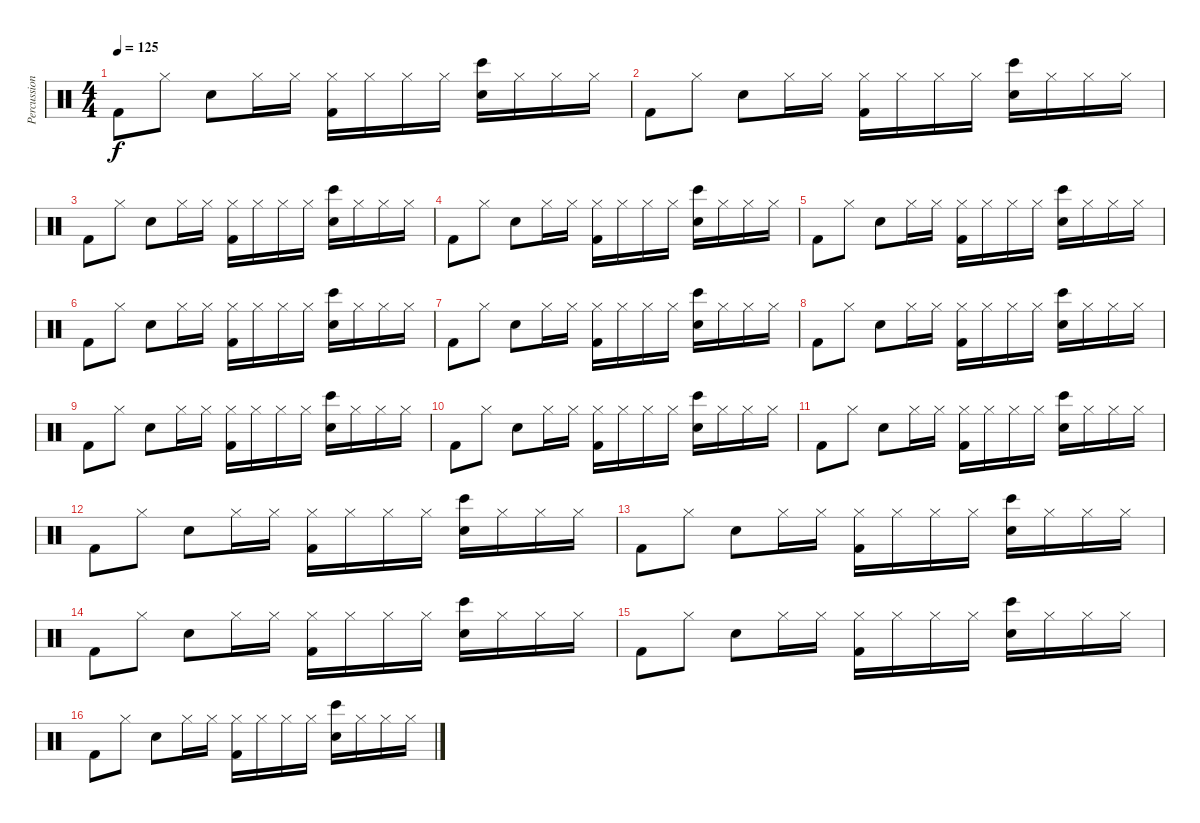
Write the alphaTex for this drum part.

\track ("Percussion" "Percussion") {instrument percussion}
\staff {score}
\articulation defaults
\ts (4 4)
\tempo 125
\clef neutral
\ks c "Kick (hit) 2".8{dy f} "Hi-Hat (closed)".8 "Snare (hit) 2".8 "Hi-Hat (closed)".16 "Hi-Hat (closed)".16
("Hi-Hat (closed)" "Kick (hit) 2").16 "Hi-Hat (closed)".16 "Hi-Hat (closed)".16 "Hi-Hat (closed)".16 ("Bongo High (hit)" "Snare (hit) 2").16 "Hi-Hat (closed)".16 "Hi-Hat (closed)".16 "Hi-Hat (closed)".16 |
"Kick (hit) 2".8 "Hi-Hat (closed)".8 "Snare (hit) 2".8 "Hi-Hat (closed)".16 "Hi-Hat (closed)".16 ("Hi-Hat (closed)" "Kick (hit) 2").16 "Hi-Hat (closed)".16 "Hi-Hat (closed)".16 "Hi-Hat (closed)".16 ("Bongo High (hit)" "Snare (hit) 2").16 "Hi-Hat (closed)".16 "Hi-Hat (closed)".16 "Hi-Hat (closed)".16 |
"Kick (hit) 2".8 "Hi-Hat (closed)".8 "Snare (hit) 2".8 "Hi-Hat (closed)".16 "Hi-Hat (closed)".16 ("Hi-Hat (closed)" "Kick (hit) 2").16 "Hi-Hat (closed)".16 "Hi-Hat (closed)".16 "Hi-Hat (closed)".16 ("Bongo High (hit)" "Snare (hit) 2").16 "Hi-Hat (closed)".16 "Hi-Hat (closed)".16 "Hi-Hat (closed)".16 |
"Kick (hit) 2".8 "Hi-Hat (closed)".8 "Snare (hit) 2".8 "Hi-Hat (closed)".16 "Hi-Hat (closed)".16 ("Hi-Hat (closed)" "Kick (hit) 2").16 "Hi-Hat (closed)".16 "Hi-Hat (closed)".16 "Hi-Hat (closed)".16 ("Bongo High (hit)" "Snare (hit) 2").16 "Hi-Hat (closed)".16 "Hi-Hat (closed)".16 "Hi-Hat (closed)".16 |
"Kick (hit) 2".8 "Hi-Hat (closed)".8 "Snare (hit) 2".8 "Hi-Hat (closed)".16 "Hi-Hat (closed)".16 ("Hi-Hat (closed)" "Kick (hit) 2").16 "Hi-Hat (closed)".16 "Hi-Hat (closed)".16 "Hi-Hat (closed)".16 ("Bongo High (hit)" "Snare (hit) 2").16 "Hi-Hat (closed)".16 "Hi-Hat (closed)".16 "Hi-Hat (closed)".16 |
"Kick (hit) 2".8 "Hi-Hat (closed)".8 "Snare (hit) 2".8 "Hi-Hat (closed)".16 "Hi-Hat (closed)".16 ("Hi-Hat (closed)" "Kick (hit) 2").16 "Hi-Hat (closed)".16 "Hi-Hat (closed)".16 "Hi-Hat (closed)".16 ("Bongo High (hit)" "Snare (hit) 2").16 "Hi-Hat (closed)".16 "Hi-Hat (closed)".16 "Hi-Hat (closed)".16 |
"Kick (hit) 2".8 "Hi-Hat (closed)".8 "Snare (hit) 2".8 "Hi-Hat (closed)".16 "Hi-Hat (closed)".16 ("Hi-Hat (closed)" "Kick (hit) 2").16 "Hi-Hat (closed)".16 "Hi-Hat (closed)".16 "Hi-Hat (closed)".16 ("Bongo High (hit)" "Snare (hit) 2").16 "Hi-Hat (closed)".16 "Hi-Hat (closed)".16 "Hi-Hat (closed)".16 |
"Kick (hit) 2".8 "Hi-Hat (closed)".8 "Snare (hit) 2".8 "Hi-Hat (closed)".16 "Hi-Hat (closed)".16 ("Hi-Hat (closed)" "Kick (hit) 2").16 "Hi-Hat (closed)".16 "Hi-Hat (closed)".16 "Hi-Hat (closed)".16 ("Bongo High (hit)" "Snare (hit) 2").16 "Hi-Hat (closed)".16 "Hi-Hat (closed)".16 "Hi-Hat (closed)".16 |
"Kick (hit) 2".8 "Hi-Hat (closed)".8 "Snare (hit) 2".8 "Hi-Hat (closed)".16 "Hi-Hat (closed)".16 ("Hi-Hat (closed)" "Kick (hit) 2").16 "Hi-Hat (closed)".16 "Hi-Hat (closed)".16 "Hi-Hat (closed)".16 ("Bongo High (hit)" "Snare (hit) 2").16 "Hi-Hat (closed)".16 "Hi-Hat (closed)".16 "Hi-Hat (closed)".16 |
"Kick (hit) 2".8 "Hi-Hat (closed)".8 "Snare (hit) 2".8 "Hi-Hat (closed)".16 "Hi-Hat (closed)".16 ("Hi-Hat (closed)" "Kick (hit) 2").16 "Hi-Hat (closed)".16 "Hi-Hat (closed)".16 "Hi-Hat (closed)".16 ("Bongo High (hit)" "Snare (hit) 2").16 "Hi-Hat (closed)".16 "Hi-Hat (closed)".16 "Hi-Hat (closed)".16 |
"Kick (hit) 2".8 "Hi-Hat (closed)".8 "Snare (hit) 2".8 "Hi-Hat (closed)".16 "Hi-Hat (closed)".16 ("Hi-Hat (closed)" "Kick (hit) 2").16 "Hi-Hat (closed)".16 "Hi-Hat (closed)".16 "Hi-Hat (closed)".16 ("Bongo High (hit)" "Snare (hit) 2").16 "Hi-Hat (closed)".16 "Hi-Hat (closed)".16 "Hi-Hat (closed)".16 |
"Kick (hit) 2".8 "Hi-Hat (closed)".8 "Snare (hit) 2".8 "Hi-Hat (closed)".16 "Hi-Hat (closed)".16 ("Hi-Hat (closed)" "Kick (hit) 2").16 "Hi-Hat (closed)".16 "Hi-Hat (closed)".16 "Hi-Hat (closed)".16 ("Bongo High (hit)" "Snare (hit) 2").16 "Hi-Hat (closed)".16 "Hi-Hat (closed)".16 "Hi-Hat (closed)".16 |
"Kick (hit) 2".8 "Hi-Hat (closed)".8 "Snare (hit) 2".8 "Hi-Hat (closed)".16 "Hi-Hat (closed)".16 ("Hi-Hat (closed)" "Kick (hit) 2").16 "Hi-Hat (closed)".16 "Hi-Hat (closed)".16 "Hi-Hat (closed)".16 ("Bongo High (hit)" "Snare (hit) 2").16 "Hi-Hat (closed)".16 "Hi-Hat (closed)".16 "Hi-Hat (closed)".16 |
"Kick (hit) 2".8 "Hi-Hat (closed)".8 "Snare (hit) 2".8 "Hi-Hat (closed)".16 "Hi-Hat (closed)".16 ("Hi-Hat (closed)" "Kick (hit) 2").16 "Hi-Hat (closed)".16 "Hi-Hat (closed)".16 "Hi-Hat (closed)".16 ("Bongo High (hit)" "Snare (hit) 2").16 "Hi-Hat (closed)".16 "Hi-Hat (closed)".16 "Hi-Hat (closed)".16 |
"Kick (hit) 2".8 "Hi-Hat (closed)".8 "Snare (hit) 2".8 "Hi-Hat (closed)".16 "Hi-Hat (closed)".16 ("Hi-Hat (closed)" "Kick (hit) 2").16 "Hi-Hat (closed)".16 "Hi-Hat (closed)".16 "Hi-Hat (closed)".16 ("Bongo High (hit)" "Snare (hit) 2").16 "Hi-Hat (closed)".16 "Hi-Hat (closed)".16 "Hi-Hat (closed)".16 |
"Kick (hit) 2".8 "Hi-Hat (closed)".8 "Snare (hit) 2".8 "Hi-Hat (closed)".16 "Hi-Hat (closed)".16 ("Hi-Hat (closed)" "Kick (hit) 2").16 "Hi-Hat (closed)".16 "Hi-Hat (closed)".16 "Hi-Hat (closed)".16 ("Bongo High (hit)" "Snare (hit) 2").16 "Hi-Hat (closed)".16 "Hi-Hat (closed)".16 "Hi-Hat (closed)".16
